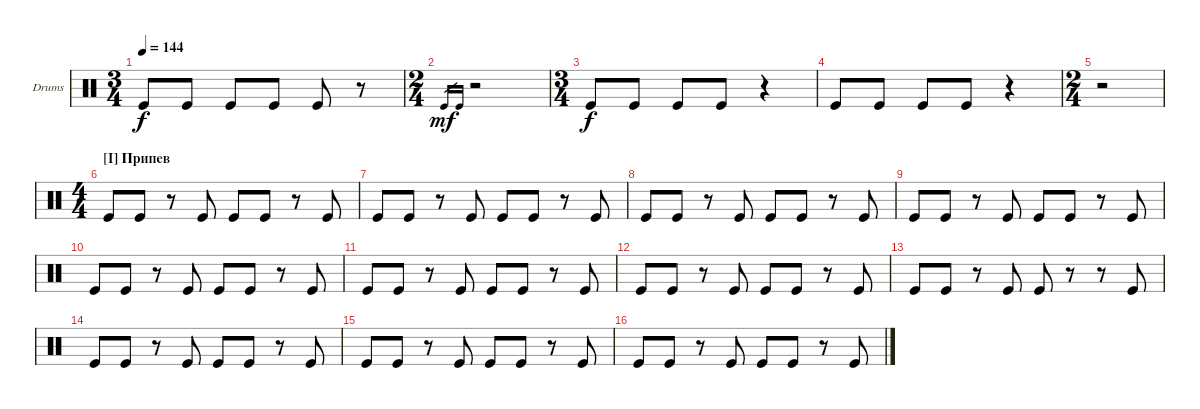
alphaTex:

\defaultSystemsLayout 4
\bracketExtendMode groupsimilarinstruments
\firstSystemTrackNameOrientation horizontal
\otherSystemsTrackNameOrientation horizontal
\track ("Kick" "Drums") {instrument percussion}
\staff {score}
\articulation defaults
\ts (3 4)
\tempo 144
\clef neutral
\ks c "Kick (hit)".8{dy f} "Kick (hit)".8 "Kick (hit)".8 "Kick (hit)".8 "Kick (hit)".8
r.8 |
\ts (2 4)
"Kick (hit)".16{gr dy mf} "Kick (hit)".16{gr} r.2 |
\ts (3 4)
"Kick (hit)".8{dy f} "Kick (hit)".8 "Kick (hit)".8 "Kick (hit)".8 r.4 |
"Kick (hit)".8 "Kick (hit)".8 "Kick (hit)".8 "Kick (hit)".8 r.4 |
\ts (2 4)
r.2 |
\ts (4 4)
\section ("I" "Припев ")
"Kick (hit)".8 "Kick (hit)".8 r.8 "Kick (hit)".8 "Kick (hit)".8 "Kick (hit)".8 r.8 "Kick (hit)".8 |
"Kick (hit)".8 "Kick (hit)".8 r.8 "Kick (hit)".8 "Kick (hit)".8 "Kick (hit)".8 r.8 "Kick (hit)".8 |
"Kick (hit)".8 "Kick (hit)".8 r.8 "Kick (hit)".8 "Kick (hit)".8 "Kick (hit)".8 r.8 "Kick (hit)".8 |
"Kick (hit)".8 "Kick (hit)".8 r.8 "Kick (hit)".8 "Kick (hit)".8 "Kick (hit)".8 r.8 "Kick (hit)".8 |
"Kick (hit)".8 "Kick (hit)".8 r.8 "Kick (hit)".8 "Kick (hit)".8 "Kick (hit)".8 r.8 "Kick (hit)".8 |
"Kick (hit)".8 "Kick (hit)".8 r.8 "Kick (hit)".8 "Kick (hit)".8 "Kick (hit)".8 r.8 "Kick (hit)".8 |
"Kick (hit)".8 "Kick (hit)".8 r.8 "Kick (hit)".8 "Kick (hit)".8 "Kick (hit)".8 r.8 "Kick (hit)".8 |
"Kick (hit)".8 "Kick (hit)".8 r.8 "Kick (hit)".8 "Kick (hit)".8 r.8 r.8 "Kick (hit)".8 |
"Kick (hit)".8 "Kick (hit)".8 r.8 "Kick (hit)".8 "Kick (hit)".8 "Kick (hit)".8 r.8 "Kick (hit)".8 |
"Kick (hit)".8 "Kick (hit)".8 r.8 "Kick (hit)".8 "Kick (hit)".8 "Kick (hit)".8 r.8 "Kick (hit)".8 |
"Kick (hit)".8 "Kick (hit)".8 r.8 "Kick (hit)".8 "Kick (hit)".8 "Kick (hit)".8 r.8 "Kick (hit)".8
